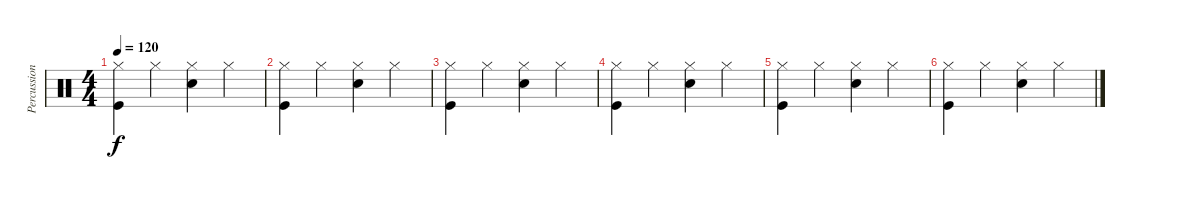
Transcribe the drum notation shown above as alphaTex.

\track ("Percussion" "Percussion") {instrument percussion}
\staff {score}
\articulation defaults
\ts (4 4)
\tempo 120
\clef neutral
\ks c
("Kick (hit)" "Hi-Hat (closed)").4{dy f} "Hi-Hat (closed)".4 ("Snare (hit) 2" "Hi-Hat (closed)").4 "Hi-Hat (closed)".4 |
("Kick (hit)" "Hi-Hat (closed)").4 "Hi-Hat (closed)".4 ("Snare (hit) 2" "Hi-Hat (closed)").4 "Hi-Hat (closed)".4 |
("Kick (hit)" "Hi-Hat (closed)").4 "Hi-Hat (closed)".4 ("Snare (hit) 2" "Hi-Hat (closed)").4 "Hi-Hat (closed)".4 |
("Kick (hit)" "Hi-Hat (closed)").4 "Hi-Hat (closed)".4 ("Snare (hit) 2" "Hi-Hat (closed)").4 "Hi-Hat (closed)".4 |
("Kick (hit)" "Hi-Hat (closed)").4 "Hi-Hat (closed)".4 ("Snare (hit) 2" "Hi-Hat (closed)").4 "Hi-Hat (closed)".4 |
("Kick (hit)" "Hi-Hat (closed)").4 "Hi-Hat (closed)".4 ("Snare (hit) 2" "Hi-Hat (closed)").4 "Hi-Hat (closed)".4
